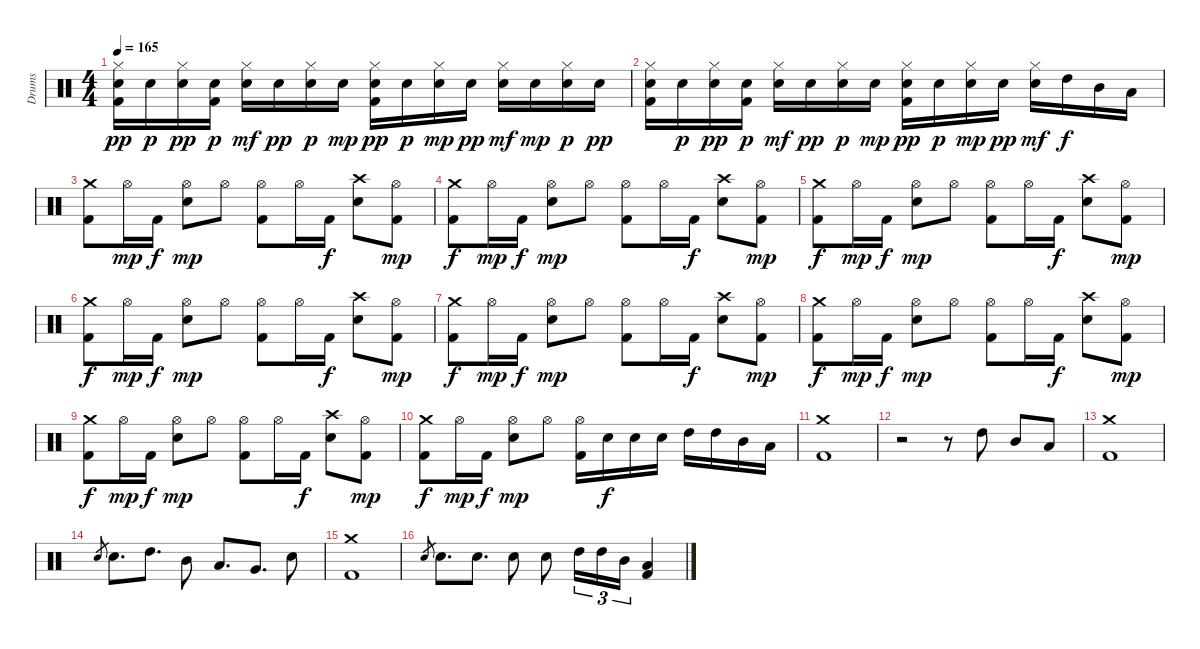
\track ("Drums" "Drums") {instrument percussion}
\staff {score}
\articulation defaults
\ts (4 4)
\tempo 165
\clef neutral
\ks c
("Hi-Hat (closed)" "Snare (hit) 2" "Kick (hit) 2").16{dy pp} "Snare (hit) 2".16{dy p} ("Hi-Hat (closed)" "Snare (hit) 2").16{dy pp} ("Snare (hit) 2" "Kick (hit) 2").16{dy p} ("Hi-Hat (closed)" "Snare (hit) 2").16{dy mf} "Snare (hit) 2".16{dy pp} ("Hi-Hat (closed)" "Snare (hit) 2").16{dy p} "Snare (hit) 2".16{dy mp} ("Hi-Hat (closed)" "Snare (hit) 2" "Kick (hit) 2").16{dy pp} "Snare (hit) 2".16{dy p} ("Hi-Hat (closed)" "Snare (hit) 2").16{dy mp} "Snare (hit) 2".16{dy pp} ("Hi-Hat (closed)" "Snare (hit) 2").16{dy mf} "Snare (hit) 2".16{dy mp} ("Hi-Hat (closed)" "Snare (hit) 2").16{dy p} "Snare (hit) 2".16{dy pp} |
("Hi-Hat (closed)" "Snare (hit) 2" "Kick (hit) 2").16 "Snare (hit) 2".16{dy p} ("Hi-Hat (closed)" "Snare (hit) 2").16{dy pp} ("Snare (hit) 2" "Kick (hit) 2").16{dy p} ("Hi-Hat (closed)" "Snare (hit) 2").16{dy mf} "Snare (hit) 2".16{dy pp} ("Hi-Hat (closed)" "Snare (hit) 2").16{dy p} "Snare (hit) 2".16{dy mp} ("Hi-Hat (closed)" "Snare (hit) 2" "Kick (hit) 2").16{dy pp} "Snare (hit) 2".16{dy p} ("Hi-Hat (closed)" "Snare (hit) 2").16{dy mp} "Snare (hit) 2".16{dy pp} ("Hi-Hat (closed)" "Snare (hit) 2").16{dy mf} "High Tom (hit)".16{dy f} "Mid Tom (hit)".16 "Low Tom (hit)".16 |
("Crash medium (hit)" "Kick (hit) 2").8 "Hi-Hat (open)".16{dy mp} "Kick (hit) 2".16{dy f} ("Hi-Hat (open)" "Snare (hit) 2").8{dy mp} "Hi-Hat (open)".8 ("Hi-Hat (open)" "Kick (hit) 2").8 "Hi-Hat (open)".16 "Kick (hit) 2".16{dy f} ("Crash high (hit)" "Snare (hit) 2").8 ("Hi-Hat (open)" "Kick (hit) 2").8{dy mp} |
("Crash medium (hit)" "Kick (hit) 2").8{dy f} "Hi-Hat (open)".16{dy mp} "Kick (hit) 2".16{dy f} ("Hi-Hat (open)" "Snare (hit) 2").8{dy mp} "Hi-Hat (open)".8 ("Hi-Hat (open)" "Kick (hit) 2").8 "Hi-Hat (open)".16 "Kick (hit) 2".16{dy f} ("Crash high (hit)" "Snare (hit) 2").8 ("Hi-Hat (open)" "Kick (hit) 2").8{dy mp} |
("Crash medium (hit)" "Kick (hit) 2").8{dy f} "Hi-Hat (open)".16{dy mp} "Kick (hit) 2".16{dy f} ("Hi-Hat (open)" "Snare (hit) 2").8{dy mp} "Hi-Hat (open)".8 ("Hi-Hat (open)" "Kick (hit) 2").8 "Hi-Hat (open)".16 "Kick (hit) 2".16{dy f} ("Crash high (hit)" "Snare (hit) 2").8 ("Hi-Hat (open)" "Kick (hit) 2").8{dy mp} |
("Crash medium (hit)" "Kick (hit) 2").8{dy f} "Hi-Hat (open)".16{dy mp} "Kick (hit) 2".16{dy f} ("Hi-Hat (open)" "Snare (hit) 2").8{dy mp} "Hi-Hat (open)".8 ("Hi-Hat (open)" "Kick (hit) 2").8 "Hi-Hat (open)".16 "Kick (hit) 2".16{dy f} ("Crash high (hit)" "Snare (hit) 2").8 ("Hi-Hat (open)" "Kick (hit) 2").8{dy mp} |
("Crash medium (hit)" "Kick (hit) 2").8{dy f} "Hi-Hat (open)".16{dy mp} "Kick (hit) 2".16{dy f} ("Hi-Hat (open)" "Snare (hit) 2").8{dy mp} "Hi-Hat (open)".8 ("Hi-Hat (open)" "Kick (hit) 2").8 "Hi-Hat (open)".16 "Kick (hit) 2".16{dy f} ("Crash high (hit)" "Snare (hit) 2").8 ("Hi-Hat (open)" "Kick (hit) 2").8{dy mp} |
("Crash medium (hit)" "Kick (hit) 2").8{dy f} "Hi-Hat (open)".16{dy mp} "Kick (hit) 2".16{dy f} ("Hi-Hat (open)" "Snare (hit) 2").8{dy mp} "Hi-Hat (open)".8 ("Hi-Hat (open)" "Kick (hit) 2").8 "Hi-Hat (open)".16 "Kick (hit) 2".16{dy f} ("Crash high (hit)" "Snare (hit) 2").8 ("Hi-Hat (open)" "Kick (hit) 2").8{dy mp} |
("Crash medium (hit)" "Kick (hit) 2").8{dy f} "Hi-Hat (open)".16{dy mp} "Kick (hit) 2".16{dy f} ("Hi-Hat (open)" "Snare (hit) 2").8{dy mp} "Hi-Hat (open)".8 ("Hi-Hat (open)" "Kick (hit) 2").8 "Hi-Hat (open)".16 "Kick (hit) 2".16{dy f} ("Crash high (hit)" "Snare (hit) 2").8 ("Hi-Hat (open)" "Kick (hit) 2").8{dy mp} |
("Crash medium (hit)" "Kick (hit) 2").8{dy f} "Hi-Hat (open)".16{dy mp} "Kick (hit) 2".16{dy f} ("Hi-Hat (open)" "Snare (hit) 2").8{dy mp} "Hi-Hat (open)".8 ("Hi-Hat (open)" "Kick (hit) 2").16 "Snare (hit) 2".16{dy f} "Snare (hit) 2".16 "Snare (hit) 2".16 "High Tom (hit)".16 "High Tom (hit)".16 "Mid Tom (hit)".16 "Low Tom (hit)".16 |
("Crash medium (hit)" "Kick (hit) 2").1 |
r.2 r.8 "High Tom (hit)".8 "Mid Tom (hit)".8 "Low Tom (hit)".8 |
("Crash medium (hit)" "Kick (hit) 2").1 |
"Snare (hit) 2".8{gr} "Snare (hit) 2".8{d} "High Tom (hit)".8{d} "Mid Tom (hit)".8 "Low Tom (hit)".8{d} "Very Low Tom (hit)".8{d} "Snare (hit) 2".8 |
("Crash medium (hit)" "Kick (hit) 2").1 |
"Snare (hit) 2".8{gr} "Snare (hit) 2".8{d} "Snare (hit) 2".8{d} "Snare (hit) 2".8 "Snare (hit) 2".8 "High Tom (hit)".16{tu (3 2)} "High Tom (hit)".16{tu (3 2)} "Mid Tom (hit)".16{tu (3 2)} ("Low Tom (hit)" "Kick (hit) 2").4
